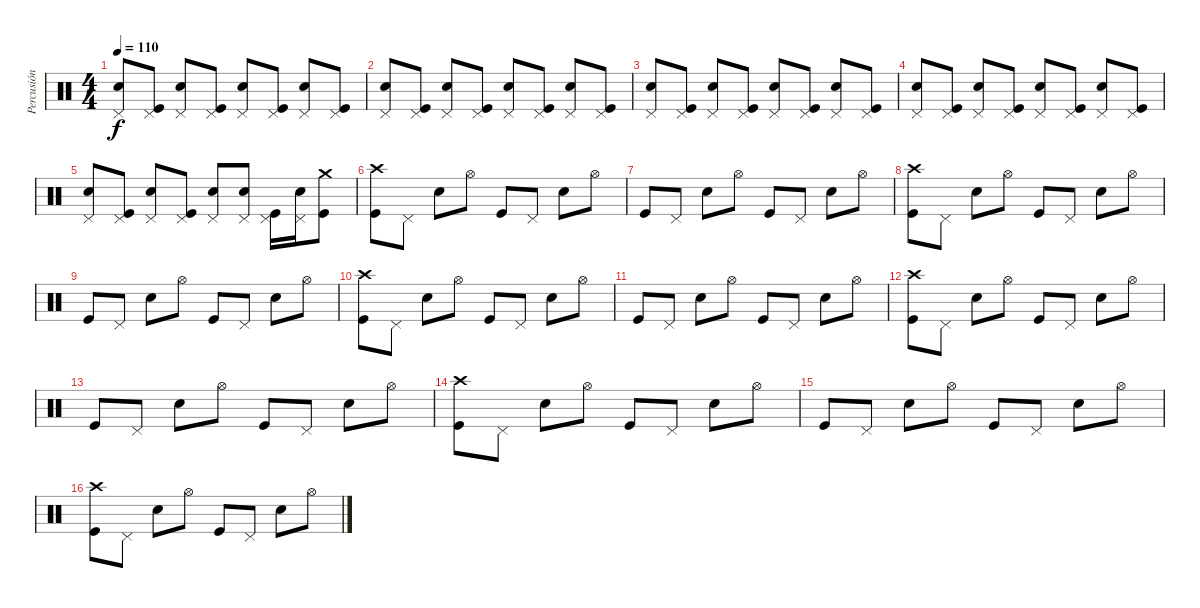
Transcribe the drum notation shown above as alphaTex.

\track ("Percusión" "Percusión") {instrument percussion}
\staff {score}
\articulation defaults
\ts (4 4)
\tempo 110
\clef neutral
\ks c
("Pedal Hi-Hat (hit)" "Electric Snare (hit)").8{dy f} ("Pedal Hi-Hat (hit)" "Kick (hit)").8 ("Pedal Hi-Hat (hit)" "Electric Snare (hit)").8 ("Pedal Hi-Hat (hit)" "Kick (hit)").8 ("Pedal Hi-Hat (hit)" "Electric Snare (hit)").8 ("Pedal Hi-Hat (hit)" "Kick (hit)").8 ("Pedal Hi-Hat (hit)" "Electric Snare (hit)").8 ("Pedal Hi-Hat (hit)" "Kick (hit)").8 |
("Pedal Hi-Hat (hit)" "Electric Snare (hit)").8 ("Pedal Hi-Hat (hit)" "Kick (hit)").8 ("Pedal Hi-Hat (hit)" "Electric Snare (hit)").8 ("Pedal Hi-Hat (hit)" "Kick (hit)").8 ("Pedal Hi-Hat (hit)" "Electric Snare (hit)").8 ("Pedal Hi-Hat (hit)" "Kick (hit)").8 ("Pedal Hi-Hat (hit)" "Electric Snare (hit)").8 ("Pedal Hi-Hat (hit)" "Kick (hit)").8 |
("Pedal Hi-Hat (hit)" "Electric Snare (hit)").8 ("Pedal Hi-Hat (hit)" "Kick (hit)").8 ("Pedal Hi-Hat (hit)" "Electric Snare (hit)").8 ("Pedal Hi-Hat (hit)" "Kick (hit)").8 ("Pedal Hi-Hat (hit)" "Electric Snare (hit)").8 ("Pedal Hi-Hat (hit)" "Kick (hit)").8 ("Pedal Hi-Hat (hit)" "Electric Snare (hit)").8 ("Pedal Hi-Hat (hit)" "Kick (hit)").8 |
("Pedal Hi-Hat (hit)" "Electric Snare (hit)").8 ("Pedal Hi-Hat (hit)" "Kick (hit)").8 ("Pedal Hi-Hat (hit)" "Electric Snare (hit)").8 ("Pedal Hi-Hat (hit)" "Kick (hit)").8 ("Pedal Hi-Hat (hit)" "Electric Snare (hit)").8 ("Pedal Hi-Hat (hit)" "Kick (hit)").8 ("Pedal Hi-Hat (hit)" "Electric Snare (hit)").8 ("Pedal Hi-Hat (hit)" "Kick (hit)").8 |
("Pedal Hi-Hat (hit)" "Electric Snare (hit)").8 ("Pedal Hi-Hat (hit)" "Kick (hit)").8 ("Pedal Hi-Hat (hit)" "Electric Snare (hit)").8 ("Pedal Hi-Hat (hit)" "Kick (hit)").8 ("Pedal Hi-Hat (hit)" "Electric Snare (hit)").8 ("Pedal Hi-Hat (hit)" "Electric Snare (hit)").8 ("Pedal Hi-Hat (hit)" "Kick (hit)").16 ("Pedal Hi-Hat (hit)" "Electric Snare (hit)").16 ("Crash medium (hit)" "Kick (hit)").8 |
("Kick (hit)" "Crash high (hit)").8 "Pedal Hi-Hat (hit)".8 "Electric Snare (hit)".8 "Hi-Hat (open)".8 "Kick (hit)".8 "Pedal Hi-Hat (hit)".8 "Electric Snare (hit)".8 "Hi-Hat (open)".8 |
"Kick (hit)".8 "Pedal Hi-Hat (hit)".8 "Electric Snare (hit)".8 "Hi-Hat (open)".8 "Kick (hit)".8 "Pedal Hi-Hat (hit)".8 "Electric Snare (hit)".8 "Hi-Hat (open)".8 |
("Kick (hit)" "Crash high (hit)").8 "Pedal Hi-Hat (hit)".8 "Electric Snare (hit)".8 "Hi-Hat (open)".8 "Kick (hit)".8 "Pedal Hi-Hat (hit)".8 "Electric Snare (hit)".8 "Hi-Hat (open)".8 |
"Kick (hit)".8 "Pedal Hi-Hat (hit)".8 "Electric Snare (hit)".8 "Hi-Hat (open)".8 "Kick (hit)".8 "Pedal Hi-Hat (hit)".8 "Electric Snare (hit)".8 "Hi-Hat (open)".8 |
("Kick (hit)" "Crash high (hit)").8 "Pedal Hi-Hat (hit)".8 "Electric Snare (hit)".8 "Hi-Hat (open)".8 "Kick (hit)".8 "Pedal Hi-Hat (hit)".8 "Electric Snare (hit)".8 "Hi-Hat (open)".8 |
"Kick (hit)".8 "Pedal Hi-Hat (hit)".8 "Electric Snare (hit)".8 "Hi-Hat (open)".8 "Kick (hit)".8 "Pedal Hi-Hat (hit)".8 "Electric Snare (hit)".8 "Hi-Hat (open)".8 |
("Kick (hit)" "Crash high (hit)").8 "Pedal Hi-Hat (hit)".8 "Electric Snare (hit)".8 "Hi-Hat (open)".8 "Kick (hit)".8 "Pedal Hi-Hat (hit)".8 "Electric Snare (hit)".8 "Hi-Hat (open)".8 |
"Kick (hit)".8 "Pedal Hi-Hat (hit)".8 "Electric Snare (hit)".8 "Hi-Hat (open)".8 "Kick (hit)".8 "Pedal Hi-Hat (hit)".8 "Electric Snare (hit)".8 "Hi-Hat (open)".8 |
("Kick (hit)" "Crash high (hit)").8 "Pedal Hi-Hat (hit)".8 "Electric Snare (hit)".8 "Hi-Hat (open)".8 "Kick (hit)".8 "Pedal Hi-Hat (hit)".8 "Electric Snare (hit)".8 "Hi-Hat (open)".8 |
"Kick (hit)".8 "Pedal Hi-Hat (hit)".8 "Electric Snare (hit)".8 "Hi-Hat (open)".8 "Kick (hit)".8 "Pedal Hi-Hat (hit)".8 "Electric Snare (hit)".8 "Hi-Hat (open)".8 |
("Kick (hit)" "Crash high (hit)").8 "Pedal Hi-Hat (hit)".8 "Electric Snare (hit)".8 "Hi-Hat (open)".8 "Kick (hit)".8 "Pedal Hi-Hat (hit)".8 "Electric Snare (hit)".8 "Hi-Hat (open)".8
